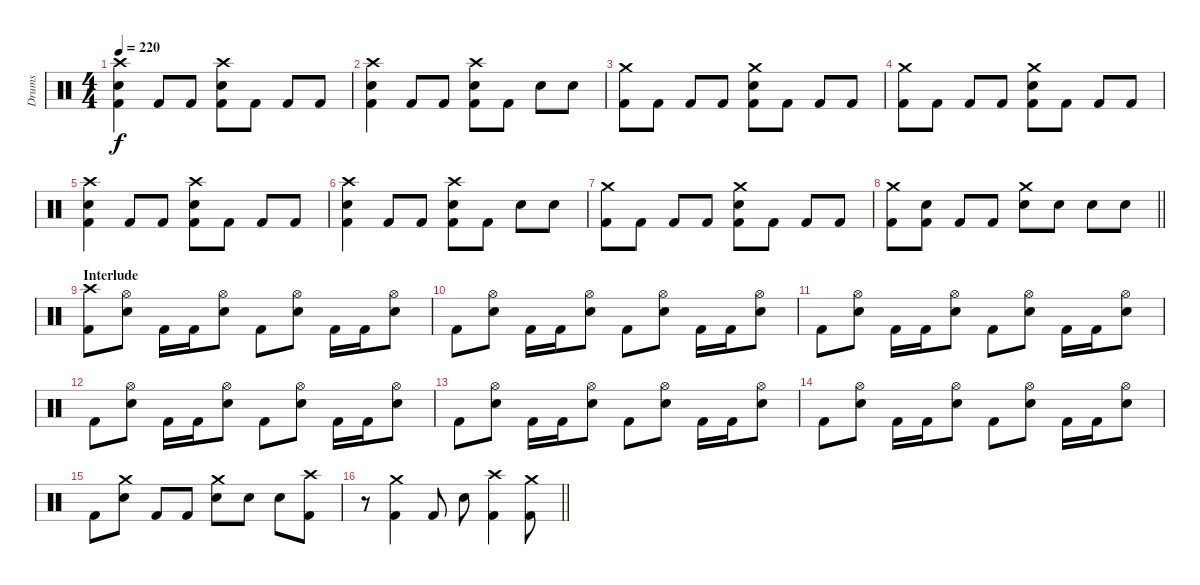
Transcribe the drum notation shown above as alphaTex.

\track ("Drums" "Drums") {instrument percussion}
\staff {score}
\articulation defaults
\ts (4 4)
\tempo 220
\clef neutral
\ks c
("Crash high (hit)" "Snare (hit) 2" "Kick (hit) 2").4{dy f} "Kick (hit) 2".8 "Kick (hit) 2".8 ("Crash high (hit)" "Snare (hit) 2" "Kick (hit) 2").8 "Kick (hit) 2".8 "Kick (hit) 2".8 "Kick (hit) 2".8 |
("Crash high (hit)" "Snare (hit) 2" "Kick (hit) 2").4 "Kick (hit) 2".8 "Kick (hit) 2".8 ("Crash high (hit)" "Snare (hit) 2" "Kick (hit) 2").8 "Kick (hit) 2".8 "Snare (hit) 2".8 "Snare (hit) 2".8 |
("Crash medium (hit)" "Kick (hit) 2").8 "Kick (hit) 2".8 "Kick (hit) 2".8 "Kick (hit) 2".8 ("Crash medium (hit)" "Snare (hit) 2" "Kick (hit) 2").8 "Kick (hit) 2".8 "Kick (hit) 2".8 "Kick (hit) 2".8 |
("Crash medium (hit)" "Kick (hit) 2").8 "Kick (hit) 2".8 "Kick (hit) 2".8 "Kick (hit) 2".8 ("Crash medium (hit)" "Snare (hit) 2" "Kick (hit) 2").8 "Kick (hit) 2".8 "Kick (hit) 2".8 "Kick (hit) 2".8 |
("Crash high (hit)" "Snare (hit) 2" "Kick (hit) 2").4 "Kick (hit) 2".8 "Kick (hit) 2".8 ("Crash high (hit)" "Snare (hit) 2" "Kick (hit) 2").8 "Kick (hit) 2".8 "Kick (hit) 2".8 "Kick (hit) 2".8 |
("Crash high (hit)" "Snare (hit) 2" "Kick (hit) 2").4 "Kick (hit) 2".8 "Kick (hit) 2".8 ("Crash high (hit)" "Snare (hit) 2" "Kick (hit) 2").8 "Kick (hit) 2".8 "Snare (hit) 2".8 "Snare (hit) 2".8 |
("Crash medium (hit)" "Kick (hit) 2").8 "Kick (hit) 2".8 "Kick (hit) 2".8 "Kick (hit) 2".8 ("Crash medium (hit)" "Snare (hit) 2" "Kick (hit) 2").8 "Kick (hit) 2".8 "Kick (hit) 2".8 "Kick (hit) 2".8 |
\barLineRight lightlight
("Crash medium (hit)" "Kick (hit) 2").8 ("Snare (hit) 2" "Kick (hit) 2").8 "Kick (hit) 2".8 "Kick (hit) 2".8 ("Crash medium (hit)" "Snare (hit) 2").8 "Snare (hit) 2".8 "Snare (hit) 2".8 "Snare (hit) 2".8 |
\section ("" "Interlude")
("Crash high (hit)" "Kick (hit) 2").8 ("Hi-Hat (open)" "Snare (hit) 2").8 "Kick (hit) 2".16 "Kick (hit) 2".16 ("Hi-Hat (open)" "Snare (hit) 2").8 "Kick (hit) 2".8 ("Hi-Hat (open)" "Snare (hit) 2").8 "Kick (hit) 2".16 "Kick (hit) 2".16 ("Hi-Hat (open)" "Snare (hit) 2").8 |
"Kick (hit) 2".8 ("Hi-Hat (open)" "Snare (hit) 2").8 "Kick (hit) 2".16 "Kick (hit) 2".16 ("Hi-Hat (open)" "Snare (hit) 2").8 "Kick (hit) 2".8 ("Hi-Hat (open)" "Snare (hit) 2").8 "Kick (hit) 2".16 "Kick (hit) 2".16 ("Hi-Hat (open)" "Snare (hit) 2").8 |
"Kick (hit) 2".8 ("Hi-Hat (open)" "Snare (hit) 2").8 "Kick (hit) 2".16 "Kick (hit) 2".16 ("Hi-Hat (open)" "Snare (hit) 2").8 "Kick (hit) 2".8 ("Hi-Hat (open)" "Snare (hit) 2").8 "Kick (hit) 2".16 "Kick (hit) 2".16 ("Hi-Hat (open)" "Snare (hit) 2").8 |
"Kick (hit) 2".8 ("Hi-Hat (open)" "Snare (hit) 2").8 "Kick (hit) 2".16 "Kick (hit) 2".16 ("Hi-Hat (open)" "Snare (hit) 2").8 "Kick (hit) 2".8 ("Hi-Hat (open)" "Snare (hit) 2").8 "Kick (hit) 2".16 "Kick (hit) 2".16 ("Hi-Hat (open)" "Snare (hit) 2").8 |
"Kick (hit) 2".8 ("Hi-Hat (open)" "Snare (hit) 2").8 "Kick (hit) 2".16 "Kick (hit) 2".16 ("Hi-Hat (open)" "Snare (hit) 2").8 "Kick (hit) 2".8 ("Hi-Hat (open)" "Snare (hit) 2").8 "Kick (hit) 2".16 "Kick (hit) 2".16 ("Hi-Hat (open)" "Snare (hit) 2").8 |
"Kick (hit) 2".8 ("Hi-Hat (open)" "Snare (hit) 2").8 "Kick (hit) 2".16 "Kick (hit) 2".16 ("Hi-Hat (open)" "Snare (hit) 2").8 "Kick (hit) 2".8 ("Hi-Hat (open)" "Snare (hit) 2").8 "Kick (hit) 2".16 "Kick (hit) 2".16 ("Hi-Hat (open)" "Snare (hit) 2").8 |
"Kick (hit) 2".8 ("Crash medium (hit)" "Snare (hit) 2").8 "Kick (hit) 2".8 "Kick (hit) 2".8 ("Crash medium (hit)" "Snare (hit) 2").8 "Snare (hit) 2".8 "Snare (hit) 2".8 ("Crash high (hit)" "Kick (hit) 2").8 |
\barLineRight lightlight
r.8 ("Crash medium (hit)" "Kick (hit) 2").4 "Kick (hit) 2".8 "Snare (hit) 2".8 ("Crash high (hit)" "Kick (hit) 2").4 ("Crash medium (hit)" "Kick (hit) 2").8
